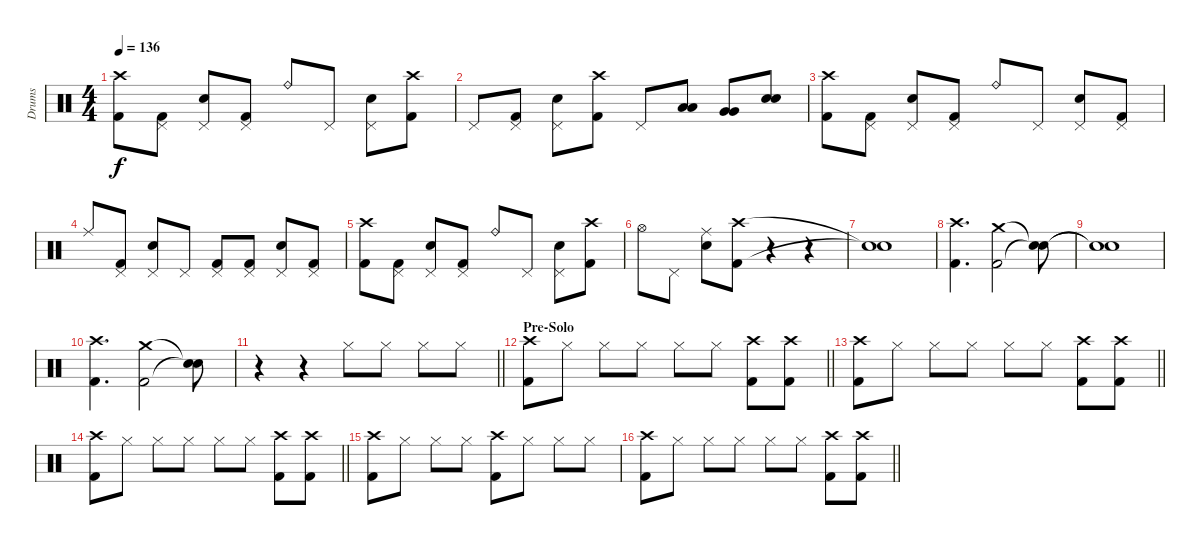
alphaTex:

\track ("Drums" "Drums") {instrument percussion}
\staff {score}
\articulation defaults
\ts (4 4)
\tempo 136
\clef neutral
\ks c
("Crash high (hit)" "Kick (hit) 2").8{dy f} ("Pedal Hi-Hat (hit)" "Kick (hit) 2").8 ("Pedal Hi-Hat (hit)" "Electric Snare (hit)").8 ("Pedal Hi-Hat (hit)" "Kick (hit) 2").8 "Ride (bell)".8 "Pedal Hi-Hat (hit)".8 ("Pedal Hi-Hat (hit)" "Electric Snare (hit)").8 ("Crash high (hit)" "Kick (hit) 2").8 |
"Pedal Hi-Hat (hit)".8 ("Pedal Hi-Hat (hit)" "Kick (hit) 2").8 ("Pedal Hi-Hat (hit)" "Electric Snare (hit)").8 ("Crash high (hit)" "Kick (hit) 2").8 "Pedal Hi-Hat (hit)".8 ("Low Tom (hit)" "Low Tom (hit)").8 ("Very Low Tom (hit)" "Very Low Tom (hit)").8 ("Electric Snare (hit)" "Electric Snare (hit)").8 |
("Crash high (hit)" "Kick (hit) 2").8 ("Pedal Hi-Hat (hit)" "Kick (hit) 2").8 ("Pedal Hi-Hat (hit)" "Electric Snare (hit)").8 ("Pedal Hi-Hat (hit)" "Kick (hit) 2").8 "Ride (bell)".8 "Pedal Hi-Hat (hit)".8 ("Pedal Hi-Hat (hit)" "Electric Snare (hit)").8 ("Pedal Hi-Hat (hit)" "Kick (hit) 2").8 |
"Ride (middle)".8 ("Pedal Hi-Hat (hit)" "Kick (hit) 2").8 ("Pedal Hi-Hat (hit)" "Electric Snare (hit)").8 "Pedal Hi-Hat (hit)".8 ("Pedal Hi-Hat (hit)" "Kick (hit) 2").8 ("Pedal Hi-Hat (hit)" "Kick (hit) 2").8 ("Pedal Hi-Hat (hit)" "Electric Snare (hit)").8 ("Pedal Hi-Hat (hit)" "Kick (hit) 2").8 |
("Crash high (hit)" "Kick (hit) 2").8 ("Pedal Hi-Hat (hit)" "Kick (hit) 2").8 ("Pedal Hi-Hat (hit)" "Electric Snare (hit)").8 ("Pedal Hi-Hat (hit)" "Kick (hit) 2").8 "Ride (bell)".8 "Pedal Hi-Hat (hit)".8 ("Pedal Hi-Hat (hit)" "Electric Snare (hit)").8 ("Crash high (hit)" "Kick (hit) 2").8 |
"Hi-Hat (open)".8 "Pedal Hi-Hat (hit)".8 ("Ride (middle)" "Electric Snare (hit)").8 ("Crash high (hit)" "Kick (hit) 2").8 r.4 r.4 |
("Snare (hit)"{t} "Snare (hit)"{t}).1 |
("Crash high (hit)" "Kick (hit) 2").4{d} ("Crash medium (hit)" "Kick (hit) 2").2 ("Snare (hit)"{t} "Snare (hit)"{t}).8 |
("Snare (hit)"{t} "Snare (hit)"{t}).1 |
("Crash high (hit)" "Kick (hit) 2").4{d} ("Crash medium (hit)" "Kick (hit) 2").2 ("Snare (hit)"{t} "Snare (hit)"{t}).8 |
\barLineRight lightlight
r.4 r.4 "Hi-Hat (closed)".8 "Hi-Hat (closed)".8 "Hi-Hat (closed)".8 "Hi-Hat (closed)".8 |
\section ("" "Pre-Solo")
\barLineRight lightlight
("Crash high (hit)" "Kick (hit) 2").8 "Hi-Hat (closed)".8 "Hi-Hat (closed)".8 "Hi-Hat (closed)".8 "Hi-Hat (closed)".8 "Hi-Hat (closed)".8 ("Crash high (hit)" "Kick (hit) 2").8 ("Crash high (hit)" "Kick (hit) 2").8 |
\barLineRight lightlight
("Crash high (hit)" "Kick (hit) 2").8 "Hi-Hat (closed)".8 "Hi-Hat (closed)".8 "Hi-Hat (closed)".8 "Hi-Hat (closed)".8 "Hi-Hat (closed)".8 ("Crash high (hit)" "Kick (hit) 2").8 ("Crash high (hit)" "Kick (hit) 2").8 |
\barLineRight lightlight
("Crash high (hit)" "Kick (hit) 2").8 "Hi-Hat (closed)".8 "Hi-Hat (closed)".8 "Hi-Hat (closed)".8 "Hi-Hat (closed)".8 "Hi-Hat (closed)".8 ("Crash high (hit)" "Kick (hit) 2").8 ("Crash high (hit)" "Kick (hit) 2").8 |
("Crash high (hit)" "Kick (hit) 2").8 "Hi-Hat (closed)".8 "Hi-Hat (closed)".8 "Hi-Hat (closed)".8 ("Crash high (hit)" "Kick (hit) 2").8 "Hi-Hat (closed)".8 "Hi-Hat (closed)".8 "Hi-Hat (closed)".8 |
\barLineRight lightlight
("Crash high (hit)" "Kick (hit) 2").8 "Hi-Hat (closed)".8 "Hi-Hat (closed)".8 "Hi-Hat (closed)".8 "Hi-Hat (closed)".8 "Hi-Hat (closed)".8 ("Crash high (hit)" "Kick (hit) 2").8 ("Crash high (hit)" "Kick (hit) 2").8
